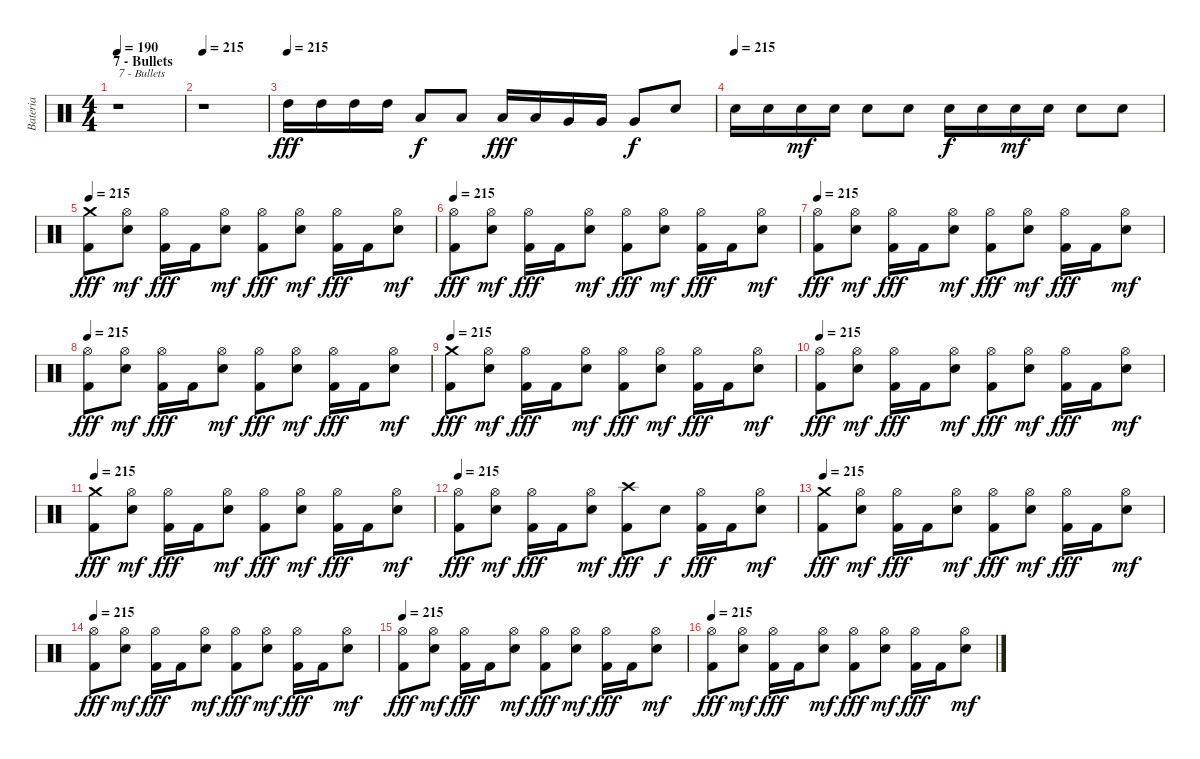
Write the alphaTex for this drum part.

\track ("Bateria" "Bateria") {instrument percussion}
\staff {score}
\articulation defaults
\ts (4 4)
\section ("" "7 - Bullets")
\tempo 190
\tempo 215
\tempo 190
\clef neutral
\ks c
r.1{txt "7 - Bullets" dy fff} |
\tempo 215
r.1 |
\tempo (215)
"High Tom (hit)".16 "High Tom (hit)".16 "High Tom (hit)".16 "High Tom (hit)".16 "Low Tom (hit)".8{dy f} "Low Tom (hit)".8 "Low Tom (hit)".16{dy fff} "Low Tom (hit)".16 "Very Low Tom (hit)".16 "Very Low Tom (hit)".16 "Very Low Tom (hit)".8{dy f} "Electric Snare (hit)".8 |
\tempo (215)
"Electric Snare (hit)".16 "Electric Snare (hit)".16 "Electric Snare (hit)".16{dy mf} "Electric Snare (hit)".16 "Electric Snare (hit)".8 "Electric Snare (hit)".8 "Electric Snare (hit)".16{dy f} "Electric Snare (hit)".16 "Electric Snare (hit)".16{dy mf} "Electric Snare (hit)".16 "Electric Snare (hit)".8 "Electric Snare (hit)".8 |
\tempo 215
("Crash medium (hit)" "Kick (hit) 2").8{dy fff} ("Hi-Hat (open)" "Electric Snare (hit)").8{dy mf} ("Hi-Hat (open)" "Kick (hit) 2").16{dy fff} "Kick (hit) 2".16 ("Hi-Hat (open)" "Electric Snare (hit)").8{dy mf} ("Hi-Hat (open)" "Kick (hit) 2").8{dy fff} ("Hi-Hat (open)" "Electric Snare (hit)").8{dy mf} ("Hi-Hat (open)" "Kick (hit) 2").16{dy fff} "Kick (hit) 2".16 ("Hi-Hat (open)" "Electric Snare (hit)").8{dy mf} |
\tempo 215
("Hi-Hat (open)" "Kick (hit) 2").8{dy fff} ("Hi-Hat (open)" "Electric Snare (hit)").8{dy mf} ("Hi-Hat (open)" "Kick (hit) 2").16{dy fff} "Kick (hit) 2".16 ("Hi-Hat (open)" "Electric Snare (hit)").8{dy mf} ("Hi-Hat (open)" "Kick (hit) 2").8{dy fff} ("Hi-Hat (open)" "Electric Snare (hit)").8{dy mf} ("Hi-Hat (open)" "Kick (hit) 2").16{dy fff} "Kick (hit) 2".16 ("Hi-Hat (open)" "Electric Snare (hit)").8{dy mf} |
\tempo 215
("Hi-Hat (open)" "Kick (hit) 2").8{dy fff} ("Hi-Hat (open)" "Electric Snare (hit)").8{dy mf} ("Hi-Hat (open)" "Kick (hit) 2").16{dy fff} "Kick (hit) 2".16 ("Hi-Hat (open)" "Electric Snare (hit)").8{dy mf} ("Hi-Hat (open)" "Kick (hit) 2").8{dy fff} ("Hi-Hat (open)" "Electric Snare (hit)").8{dy mf} ("Hi-Hat (open)" "Kick (hit) 2").16{dy fff} "Kick (hit) 2".16 ("Hi-Hat (open)" "Electric Snare (hit)").8{dy mf} |
\tempo 215
("Hi-Hat (open)" "Kick (hit) 2").8{dy fff} ("Hi-Hat (open)" "Electric Snare (hit)").8{dy mf} ("Hi-Hat (open)" "Kick (hit) 2").16{dy fff} "Kick (hit) 2".16 ("Hi-Hat (open)" "Electric Snare (hit)").8{dy mf} ("Hi-Hat (open)" "Kick (hit) 2").8{dy fff} ("Hi-Hat (open)" "Electric Snare (hit)").8{dy mf} ("Hi-Hat (open)" "Kick (hit) 2").16{dy fff} "Kick (hit) 2".16 ("Hi-Hat (open)" "Electric Snare (hit)").8{dy mf} |
\tempo 215
("Crash medium (hit)" "Kick (hit) 2").8{dy fff} ("Hi-Hat (open)" "Electric Snare (hit)").8{dy mf} ("Hi-Hat (open)" "Kick (hit) 2").16{dy fff} "Kick (hit) 2".16 ("Hi-Hat (open)" "Electric Snare (hit)").8{dy mf} ("Hi-Hat (open)" "Kick (hit) 2").8{dy fff} ("Hi-Hat (open)" "Electric Snare (hit)").8{dy mf} ("Hi-Hat (open)" "Kick (hit) 2").16{dy fff} "Kick (hit) 2".16 ("Hi-Hat (open)" "Electric Snare (hit)").8{dy mf} |
\tempo 215
("Hi-Hat (open)" "Kick (hit) 2").8{dy fff} ("Hi-Hat (open)" "Electric Snare (hit)").8{dy mf} ("Hi-Hat (open)" "Kick (hit) 2").16{dy fff} "Kick (hit) 2".16 ("Hi-Hat (open)" "Electric Snare (hit)").8{dy mf} ("Hi-Hat (open)" "Kick (hit) 2").8{dy fff} ("Hi-Hat (open)" "Electric Snare (hit)").8{dy mf} ("Hi-Hat (open)" "Kick (hit) 2").16{dy fff} "Kick (hit) 2".16 ("Hi-Hat (open)" "Electric Snare (hit)").8{dy mf} |
\tempo 215
("Crash medium (hit)" "Kick (hit) 2").8{dy fff} ("Hi-Hat (open)" "Electric Snare (hit)").8{dy mf} ("Hi-Hat (open)" "Kick (hit) 2").16{dy fff} "Kick (hit) 2".16 ("Hi-Hat (open)" "Electric Snare (hit)").8{dy mf} ("Hi-Hat (open)" "Kick (hit) 2").8{dy fff} ("Hi-Hat (open)" "Electric Snare (hit)").8{dy mf} ("Hi-Hat (open)" "Kick (hit) 2").16{dy fff} "Kick (hit) 2".16 ("Hi-Hat (open)" "Electric Snare (hit)").8{dy mf} |
\tempo 215
("Hi-Hat (open)" "Kick (hit) 2").8{dy fff} ("Hi-Hat (open)" "Electric Snare (hit)").8{dy mf} ("Hi-Hat (open)" "Kick (hit) 2").16{dy fff} "Kick (hit) 2".16 ("Hi-Hat (open)" "Electric Snare (hit)").8{dy mf} ("Crash high (hit)" "Kick (hit) 2").8{dy fff} "Electric Snare (hit)".8{dy f} ("Hi-Hat (open)" "Kick (hit) 2").16{dy fff} "Kick (hit) 2".16 ("Hi-Hat (open)" "Electric Snare (hit)").8{dy mf} |
\tempo 215
("Crash medium (hit)" "Kick (hit) 2").8{dy fff} ("Hi-Hat (open)" "Electric Snare (hit)").8{dy mf} ("Hi-Hat (open)" "Kick (hit) 2").16{dy fff} "Kick (hit) 2".16 ("Hi-Hat (open)" "Electric Snare (hit)").8{dy mf} ("Hi-Hat (open)" "Kick (hit) 2").8{dy fff} ("Hi-Hat (open)" "Electric Snare (hit)").8{dy mf} ("Hi-Hat (open)" "Kick (hit) 2").16{dy fff} "Kick (hit) 2".16 ("Hi-Hat (open)" "Electric Snare (hit)").8{dy mf} |
\tempo 215
("Hi-Hat (open)" "Kick (hit) 2").8{dy fff} ("Hi-Hat (open)" "Electric Snare (hit)").8{dy mf} ("Hi-Hat (open)" "Kick (hit) 2").16{dy fff} "Kick (hit) 2".16 ("Hi-Hat (open)" "Electric Snare (hit)").8{dy mf} ("Hi-Hat (open)" "Kick (hit) 2").8{dy fff} ("Hi-Hat (open)" "Electric Snare (hit)").8{dy mf} ("Hi-Hat (open)" "Kick (hit) 2").16{dy fff} "Kick (hit) 2".16 ("Hi-Hat (open)" "Electric Snare (hit)").8{dy mf} |
\tempo 215
("Hi-Hat (open)" "Kick (hit) 2").8{dy fff} ("Hi-Hat (open)" "Electric Snare (hit)").8{dy mf} ("Hi-Hat (open)" "Kick (hit) 2").16{dy fff} "Kick (hit) 2".16 ("Hi-Hat (open)" "Electric Snare (hit)").8{dy mf} ("Hi-Hat (open)" "Kick (hit) 2").8{dy fff} ("Hi-Hat (open)" "Electric Snare (hit)").8{dy mf} ("Hi-Hat (open)" "Kick (hit) 2").16{dy fff} "Kick (hit) 2".16 ("Hi-Hat (open)" "Electric Snare (hit)").8{dy mf} |
\tempo 215
("Hi-Hat (open)" "Kick (hit) 2").8{dy fff} ("Hi-Hat (open)" "Electric Snare (hit)").8{dy mf} ("Hi-Hat (open)" "Kick (hit) 2").16{dy fff} "Kick (hit) 2".16 ("Hi-Hat (open)" "Electric Snare (hit)").8{dy mf} ("Hi-Hat (open)" "Kick (hit) 2").8{dy fff} ("Hi-Hat (open)" "Electric Snare (hit)").8{dy mf} ("Hi-Hat (open)" "Kick (hit) 2").16{dy fff} "Kick (hit) 2".16 ("Hi-Hat (open)" "Electric Snare (hit)").8{dy mf}
